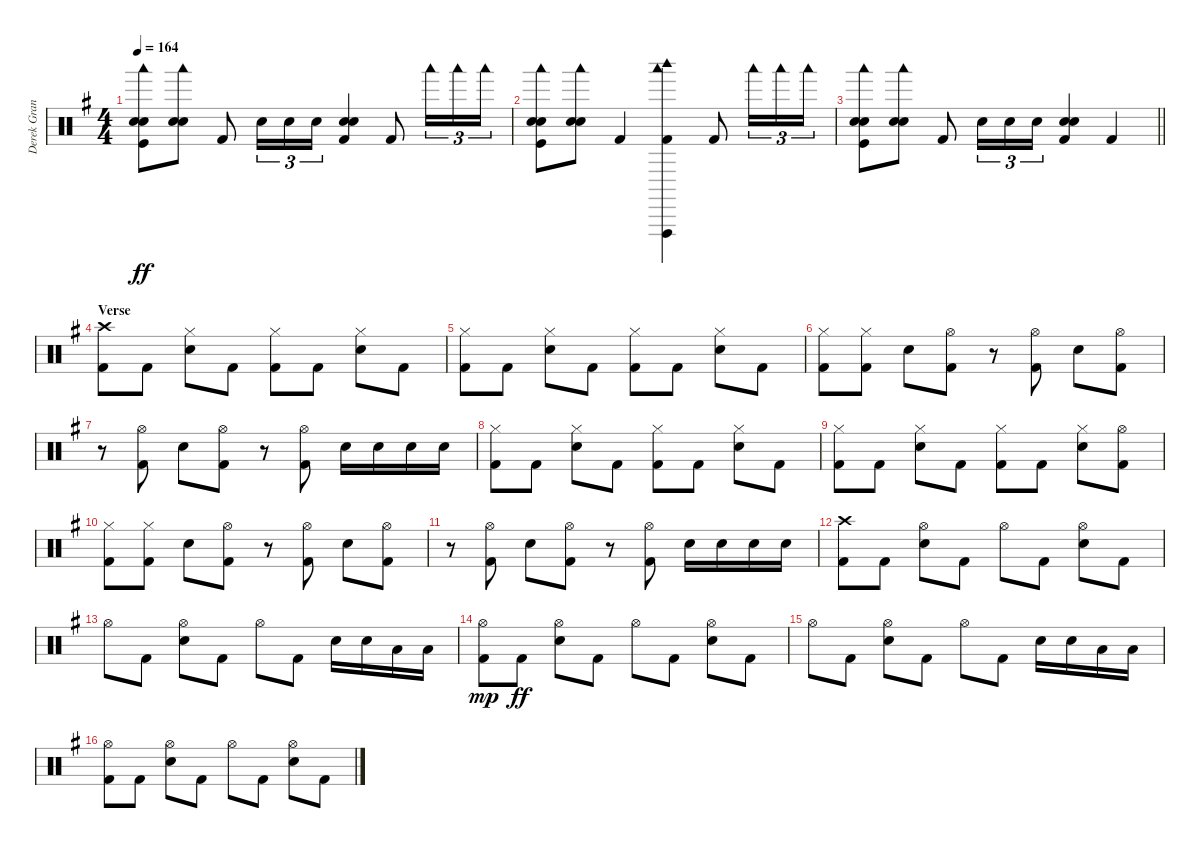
\track ("Derek Grant - Drums" "Derek Gran") {instrument percussion}
\staff {score}
\articulation defaults
\ts (4 4)
\tempo 164
\clef neutral
\ks eminor
("Kick (hit)" "Snare (hit) 2" "Snare (hit) 2" "Woodblock low (hit)").8{dy ff} ("Snare (hit) 2" "Snare (hit) 2" "Woodblock low (hit)").8 "Kick (hit) 2".8 "Snare (hit) 2".16{tu (3 2)} "Snare (hit) 2".16{tu (3 2)} "Snare (hit) 2".16{tu (3 2)} ("Snare (hit) 2" "Snare (hit) 2" "Kick (hit) 2").4 "Kick (hit) 2".8 "Woodblock low (hit)".16{tu (3 2)} "Woodblock low (hit)".16{tu (3 2)} "Woodblock low (hit)".16{tu (3 2)} |
("Kick (hit)" "Snare (hit) 2" "Snare (hit) 2" "Woodblock low (hit)").8 ("Snare (hit) 2" "Snare (hit) 2" "Woodblock low (hit)").8 "Kick (hit) 2".4 ("Kick (hit) 2" "Vibraslap (hit)" "Woodblock low (hit)" "Woodblock high (hit)").4 "Kick (hit) 2".8 "Woodblock low (hit)".16{tu (3 2)} "Woodblock low (hit)".16{tu (3 2)} "Woodblock low (hit)".16{tu (3 2)} |
\barLineRight lightlight
("Kick (hit)" "Snare (hit) 2" "Snare (hit) 2" "Woodblock low (hit)").8 ("Snare (hit) 2" "Snare (hit) 2" "Woodblock low (hit)").8 "Kick (hit) 2".8 "Snare (hit) 2".16{tu (3 2)} "Snare (hit) 2".16{tu (3 2)} "Snare (hit) 2".16{tu (3 2)} ("Snare (hit) 2" "Snare (hit) 2" "Kick (hit) 2").4 "Kick (hit) 2".4 |
\section ("" "Verse")
("Crash high (hit)" "Kick (hit) 2").8 "Kick (hit) 2".8 ("Snare (hit) 2" "Hi-Hat (closed)").8 "Kick (hit) 2".8 ("Kick (hit) 2" "Hi-Hat (closed)").8 "Kick (hit) 2".8 ("Snare (hit) 2" "Hi-Hat (closed)").8 "Kick (hit) 2".8 |
("Kick (hit) 2" "Hi-Hat (closed)").8 "Kick (hit) 2".8 ("Snare (hit) 2" "Hi-Hat (closed)").8 "Kick (hit) 2".8 ("Kick (hit) 2" "Hi-Hat (closed)").8 "Kick (hit) 2".8 ("Snare (hit) 2" "Hi-Hat (closed)").8 "Kick (hit) 2".8 |
("Kick (hit) 2" "Hi-Hat (closed)").8 ("Kick (hit) 2" "Hi-Hat (closed)").8 "Snare (hit) 2".8 ("Kick (hit) 2" "Hi-Hat (open)").8 r.8 ("Kick (hit) 2" "Hi-Hat (open)").8 "Snare (hit) 2".8 ("Hi-Hat (open)" "Kick (hit) 2").8 |
r.8 ("Kick (hit) 2" "Hi-Hat (open)").8 "Snare (hit) 2".8 ("Hi-Hat (open)" "Kick (hit) 2").8 r.8 ("Kick (hit) 2" "Hi-Hat (open)").8 "Snare (hit) 2".16 "Snare (hit) 2".16 "Snare (hit) 2".16 "Snare (hit) 2".16 |
("Kick (hit) 2" "Hi-Hat (closed)").8 "Kick (hit) 2".8 ("Snare (hit) 2" "Hi-Hat (closed)").8 "Kick (hit) 2".8 ("Kick (hit) 2" "Hi-Hat (closed)").8 "Kick (hit) 2".8 ("Snare (hit) 2" "Hi-Hat (closed)").8 "Kick (hit) 2".8 |
("Kick (hit) 2" "Hi-Hat (closed)").8 "Kick (hit) 2".8 ("Snare (hit) 2" "Hi-Hat (closed)").8 "Kick (hit) 2".8 ("Kick (hit) 2" "Hi-Hat (closed)").8 "Kick (hit) 2".8 ("Snare (hit) 2" "Hi-Hat (closed)").8 ("Hi-Hat (open)" "Kick (hit) 2").8 |
("Kick (hit) 2" "Hi-Hat (closed)").8 ("Kick (hit) 2" "Hi-Hat (closed)").8 "Snare (hit) 2".8 ("Kick (hit) 2" "Hi-Hat (open)").8 r.8 ("Kick (hit) 2" "Hi-Hat (open)").8 "Snare (hit) 2".8 ("Hi-Hat (open)" "Kick (hit) 2").8 |
r.8 ("Kick (hit) 2" "Hi-Hat (open)").8 "Snare (hit) 2".8 ("Hi-Hat (open)" "Kick (hit) 2").8 r.8 ("Kick (hit) 2" "Hi-Hat (open)").8 "Snare (hit) 2".16 "Snare (hit) 2".16 "Snare (hit) 2".16 "Snare (hit) 2".16 |
("Kick (hit) 2" "Crash high (hit)").8 "Kick (hit) 2".8 ("Snare (hit) 2" "Hi-Hat (open)").8 "Kick (hit) 2".8 "Hi-Hat (open)".8 "Kick (hit) 2".8 ("Snare (hit) 2" "Hi-Hat (open)").8 "Kick (hit) 2".8 |
"Hi-Hat (open)".8 "Kick (hit) 2".8 ("Snare (hit) 2" "Hi-Hat (open)").8 "Kick (hit) 2".8 "Hi-Hat (open)".8 "Kick (hit) 2".8 "Snare (hit) 2".16 "Snare (hit) 2".16 "Low Tom (hit)".16 "Low Tom (hit)".16 |
("Kick (hit) 2" "Hi-Hat (open)").8{dy mp} "Kick (hit) 2".8{dy ff} ("Snare (hit) 2" "Hi-Hat (open)").8 "Kick (hit) 2".8 "Hi-Hat (open)".8 "Kick (hit) 2".8 ("Snare (hit) 2" "Hi-Hat (open)").8 "Kick (hit) 2".8 |
"Hi-Hat (open)".8 "Kick (hit) 2".8 ("Snare (hit) 2" "Hi-Hat (open)").8 "Kick (hit) 2".8 "Hi-Hat (open)".8 "Kick (hit) 2".8 "Snare (hit) 2".16 "Snare (hit) 2".16 "Low Tom (hit)".16 "Low Tom (hit)".16 |
("Kick (hit) 2" "Hi-Hat (open)").8 "Kick (hit) 2".8 ("Snare (hit) 2" "Hi-Hat (open)").8 "Kick (hit) 2".8 "Hi-Hat (open)".8 "Kick (hit) 2".8 ("Snare (hit) 2" "Hi-Hat (open)").8 "Kick (hit) 2".8
